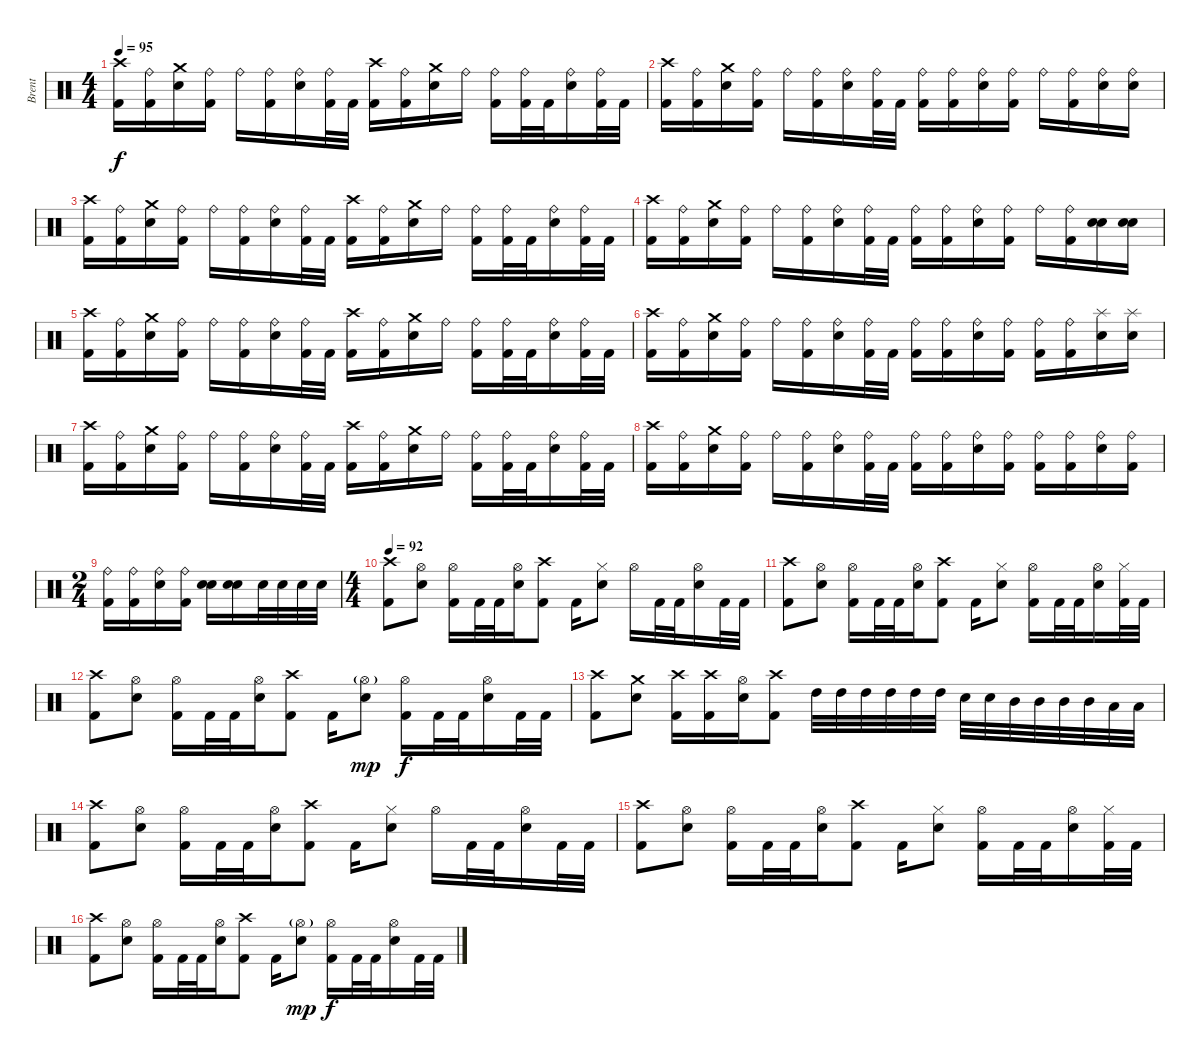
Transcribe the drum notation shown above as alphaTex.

\track ("Brent" "Brent") {instrument percussion}
\staff {score}
\articulation defaults
\ts (4 4)
\tempo 95
\tempo 90
\tempo 95
\clef neutral
\ks c
("Crash high (hit)" "Kick (hit) 2").16{dy f} ("Ride (bell)" "Kick (hit) 2").16 ("Crash medium (hit)" "Snare (hit) 2").16 ("Ride (bell)" "Kick (hit) 2").16 "Ride (bell)".16 ("Ride (bell)" "Kick (hit) 2").16 ("Ride (bell)" "Snare (hit) 2").16 ("Ride (bell)" "Kick (hit) 2").32 "Kick (hit) 2".32 ("Crash high (hit)" "Kick (hit) 2").16 ("Ride (bell)" "Kick (hit) 2").16 ("Crash medium (hit)" "Snare (hit) 2").16 "Ride (bell)".16 ("Ride (bell)" "Kick (hit) 2").16 ("Ride (bell)" "Kick (hit) 2").32 "Kick (hit) 2".32 ("Ride (bell)" "Snare (hit) 2").16 ("Ride (bell)" "Kick (hit) 2").32 "Kick (hit) 2".32 |
("Crash high (hit)" "Kick (hit) 2").16 ("Ride (bell)" "Kick (hit) 2").16 ("Crash medium (hit)" "Snare (hit) 2").16 ("Ride (bell)" "Kick (hit) 2").16 "Ride (bell)".16 ("Ride (bell)" "Kick (hit) 2").16 ("Ride (bell)" "Snare (hit) 2").16 ("Ride (bell)" "Kick (hit) 2").32 "Kick (hit) 2".32 ("Ride (bell)" "Kick (hit) 2").16 ("Ride (bell)" "Kick (hit) 2").16 ("Ride (bell)" "Snare (hit) 2").16 ("Ride (bell)" "Kick (hit) 2").16 "Ride (bell)".16 ("Ride (bell)" "Kick (hit) 2").16 ("Ride (bell)" "Snare (hit) 2").16 ("Ride (bell)" "Snare (hit) 2").16 |
("Crash high (hit)" "Kick (hit) 2").16 ("Ride (bell)" "Kick (hit) 2").16 ("Crash medium (hit)" "Snare (hit) 2").16 ("Ride (bell)" "Kick (hit) 2").16 "Ride (bell)".16 ("Ride (bell)" "Kick (hit) 2").16 ("Ride (bell)" "Snare (hit) 2").16 ("Ride (bell)" "Kick (hit) 2").32 "Kick (hit) 2".32 ("Crash high (hit)" "Kick (hit) 2").16 ("Ride (bell)" "Kick (hit) 2").16 ("Crash medium (hit)" "Snare (hit) 2").16 "Ride (bell)".16 ("Ride (bell)" "Kick (hit) 2").16 ("Ride (bell)" "Kick (hit) 2").32 "Kick (hit) 2".32 ("Ride (bell)" "Snare (hit) 2").16 ("Ride (bell)" "Kick (hit) 2").32 "Kick (hit) 2".32 |
("Crash high (hit)" "Kick (hit) 2").16 ("Ride (bell)" "Kick (hit) 2").16 ("Crash medium (hit)" "Snare (hit) 2").16 ("Ride (bell)" "Kick (hit) 2").16 "Ride (bell)".16 ("Ride (bell)" "Kick (hit) 2").16 ("Ride (bell)" "Snare (hit) 2").16 ("Ride (bell)" "Kick (hit) 2").32 "Kick (hit) 2".32 ("Ride (bell)" "Kick (hit) 2").16 ("Ride (bell)" "Kick (hit) 2").16 ("Ride (bell)" "Snare (hit) 2").16 ("Ride (bell)" "Kick (hit) 2").16 "Ride (bell)".16 ("Ride (bell)" "Kick (hit) 2").16 ("Snare (hit) 2" "Snare (hit) 2").16 ("Snare (hit) 2" "Snare (hit) 2").16 |
("Crash high (hit)" "Kick (hit) 2").16 ("Ride (bell)" "Kick (hit) 2").16 ("Crash medium (hit)" "Snare (hit) 2").16 ("Ride (bell)" "Kick (hit) 2").16 "Ride (bell)".16 ("Ride (bell)" "Kick (hit) 2").16 ("Ride (bell)" "Snare (hit) 2").16 ("Ride (bell)" "Kick (hit) 2").32 "Kick (hit) 2".32 ("Crash high (hit)" "Kick (hit) 2").16 ("Ride (bell)" "Kick (hit) 2").16 ("Crash medium (hit)" "Snare (hit) 2").16 "Ride (bell)".16 ("Ride (bell)" "Kick (hit) 2").16 ("Ride (bell)" "Kick (hit) 2").32 "Kick (hit) 2".32 ("Ride (bell)" "Snare (hit) 2").16 ("Ride (bell)" "Kick (hit) 2").32 "Kick (hit) 2".32 |
("Crash high (hit)" "Kick (hit) 2").16 ("Ride (bell)" "Kick (hit) 2").16 ("Crash medium (hit)" "Snare (hit) 2").16 ("Ride (bell)" "Kick (hit) 2").16 "Ride (bell)".16 ("Ride (bell)" "Kick (hit) 2").16 ("Ride (bell)" "Snare (hit) 2").16 ("Ride (bell)" "Kick (hit) 2").32 "Kick (hit) 2".32 ("Ride (bell)" "Kick (hit) 2").16 ("Ride (bell)" "Kick (hit) 2").16 ("Ride (bell)" "Snare (hit) 2").16 ("Ride (bell)" "Kick (hit) 2").16 ("Ride (bell)" "Kick (hit) 2").16 ("Ride (bell)" "Kick (hit) 2").16 ("Splash (hit)" "Snare (hit) 2").16 ("Splash (hit)" "Snare (hit) 2").16 |
("Crash high (hit)" "Kick (hit) 2").16 ("Ride (bell)" "Kick (hit) 2").16 ("Crash medium (hit)" "Snare (hit) 2").16 ("Ride (bell)" "Kick (hit) 2").16 "Ride (bell)".16 ("Ride (bell)" "Kick (hit) 2").16 ("Ride (bell)" "Snare (hit) 2").16 ("Ride (bell)" "Kick (hit) 2").32 "Kick (hit) 2".32 ("Crash high (hit)" "Kick (hit) 2").16 ("Ride (bell)" "Kick (hit) 2").16 ("Crash medium (hit)" "Snare (hit) 2").16 "Ride (bell)".16 ("Ride (bell)" "Kick (hit) 2").16 ("Ride (bell)" "Kick (hit) 2").32 "Kick (hit) 2".32 ("Ride (bell)" "Snare (hit) 2").16 ("Ride (bell)" "Kick (hit) 2").32 "Kick (hit) 2".32 |
("Crash high (hit)" "Kick (hit) 2").16 ("Ride (bell)" "Kick (hit) 2").16 ("Crash medium (hit)" "Snare (hit) 2").16 ("Ride (bell)" "Kick (hit) 2").16 "Ride (bell)".16 ("Ride (bell)" "Kick (hit) 2").16 ("Ride (bell)" "Snare (hit) 2").16 ("Ride (bell)" "Kick (hit) 2").32 "Kick (hit) 2".32 ("Ride (bell)" "Kick (hit) 2").16 ("Ride (bell)" "Kick (hit) 2").16 ("Ride (bell)" "Snare (hit) 2").16 ("Ride (bell)" "Kick (hit) 2").16 ("Ride (bell)" "Kick (hit) 2").16 ("Ride (bell)" "Kick (hit) 2").16 ("Ride (bell)" "Snare (hit) 2").16 ("Ride (bell)" "Kick (hit) 2").16 |
\ts (2 4)
("Ride (bell)" "Kick (hit) 2").16 ("Ride (bell)" "Kick (hit) 2").16 ("Ride (bell)" "Snare (hit) 2").16 ("Ride (bell)" "Kick (hit) 2").16 ("Snare (hit) 2" "Snare (hit) 2").16 ("Snare (hit) 2" "Snare (hit) 2").16 "Snare (hit) 2".32 "Snare (hit) 2".32 "Snare (hit) 2".32 "Snare (hit) 2".32 |
\ts (4 4)
\tempo 92
("Crash high (hit)" "Kick (hit) 2").8 ("Hi-Hat (open)" "Snare (hit) 2").8 ("Hi-Hat (open)" "Kick (hit) 2").16 "Kick (hit) 2".32 "Kick (hit) 2".32 ("Hi-Hat (open)" "Snare (hit) 2").16 ("Crash high (hit)" "Kick (hit) 2").8 "Kick (hit) 2".16 ("Hi-Hat (closed)" "Snare (hit) 2").8 "Hi-Hat (open)".16 "Kick (hit) 2".32 "Kick (hit) 2".32 ("Hi-Hat (open)" "Snare (hit) 2").16 "Kick (hit) 2".32 "Kick (hit) 2".32 |
("Crash high (hit)" "Kick (hit) 2").8 ("Hi-Hat (open)" "Snare (hit) 2").8 ("Hi-Hat (open)" "Kick (hit) 2").16 "Kick (hit) 2".32 "Kick (hit) 2".32 ("Hi-Hat (open)" "Snare (hit) 2").16 ("Crash high (hit)" "Kick (hit) 2").8 "Kick (hit) 2".16 ("Hi-Hat (closed)" "Snare (hit) 2").8 ("Hi-Hat (open)" "Kick (hit) 2").16 "Kick (hit) 2".32 "Kick (hit) 2".32 ("Hi-Hat (open)" "Snare (hit) 2").16 ("Hi-Hat (closed)" "Kick (hit) 2").32 "Kick (hit) 2".32 |
("Crash high (hit)" "Kick (hit) 2").8 ("Hi-Hat (open)" "Snare (hit) 2").8 ("Hi-Hat (open)" "Kick (hit) 2").16 "Kick (hit) 2".32 "Kick (hit) 2".32 ("Hi-Hat (open)" "Snare (hit) 2").16 ("Crash high (hit)" "Kick (hit) 2").8 "Kick (hit) 2".16 ("Hi-Hat (open)"{g} "Snare (hit) 2").8{dy mp} ("Hi-Hat (open)" "Kick (hit) 2").16{dy f} "Kick (hit) 2".32 "Kick (hit) 2".32 ("Hi-Hat (open)" "Snare (hit) 2").16 "Kick (hit) 2".32 "Kick (hit) 2".32 |
("Crash high (hit)" "Kick (hit) 2").8 ("Crash medium (hit)" "Snare (hit) 2").8 ("Crash high (hit)" "Kick (hit) 2").16 ("Crash high (hit)" "Kick (hit) 2").16 ("Hi-Hat (open)" "Snare (hit) 2").16 ("Crash high (hit)" "Kick (hit) 2").8 "High Tom (hit)".32 "High Tom (hit)".32 "High Tom (hit)".32 "High Tom (hit)".32 "High Tom (hit)".32 "High Tom (hit)".32 "Snare (hit) 2".32 "Snare (hit) 2".32 "Mid Tom (hit)".32 "Mid Tom (hit)".32 "Mid Tom (hit)".32 "Mid Tom (hit)".32 "Low Tom (hit)".32 "Low Tom (hit)".32 |
("Crash high (hit)" "Kick (hit) 2").8 ("Hi-Hat (open)" "Snare (hit) 2").8 ("Hi-Hat (open)" "Kick (hit) 2").16 "Kick (hit) 2".32 "Kick (hit) 2".32 ("Hi-Hat (open)" "Snare (hit) 2").16 ("Crash high (hit)" "Kick (hit) 2").8 "Kick (hit) 2".16 ("Hi-Hat (closed)" "Snare (hit) 2").8 "Hi-Hat (open)".16 "Kick (hit) 2".32 "Kick (hit) 2".32 ("Hi-Hat (open)" "Snare (hit) 2").16 "Kick (hit) 2".32 "Kick (hit) 2".32 |
("Crash high (hit)" "Kick (hit) 2").8 ("Hi-Hat (open)" "Snare (hit) 2").8 ("Hi-Hat (open)" "Kick (hit) 2").16 "Kick (hit) 2".32 "Kick (hit) 2".32 ("Hi-Hat (open)" "Snare (hit) 2").16 ("Crash high (hit)" "Kick (hit) 2").8 "Kick (hit) 2".16 ("Hi-Hat (closed)" "Snare (hit) 2").8 ("Hi-Hat (open)" "Kick (hit) 2").16 "Kick (hit) 2".32 "Kick (hit) 2".32 ("Hi-Hat (open)" "Snare (hit) 2").16 ("Hi-Hat (closed)" "Kick (hit) 2").32 "Kick (hit) 2".32 |
("Crash high (hit)" "Kick (hit) 2").8 ("Hi-Hat (open)" "Snare (hit) 2").8 ("Hi-Hat (open)" "Kick (hit) 2").16 "Kick (hit) 2".32 "Kick (hit) 2".32 ("Hi-Hat (open)" "Snare (hit) 2").16 ("Crash high (hit)" "Kick (hit) 2").8 "Kick (hit) 2".16 ("Hi-Hat (open)"{g} "Snare (hit) 2").8{dy mp} ("Hi-Hat (open)" "Kick (hit) 2").16{dy f} "Kick (hit) 2".32 "Kick (hit) 2".32 ("Hi-Hat (open)" "Snare (hit) 2").16 "Kick (hit) 2".32 "Kick (hit) 2".32
